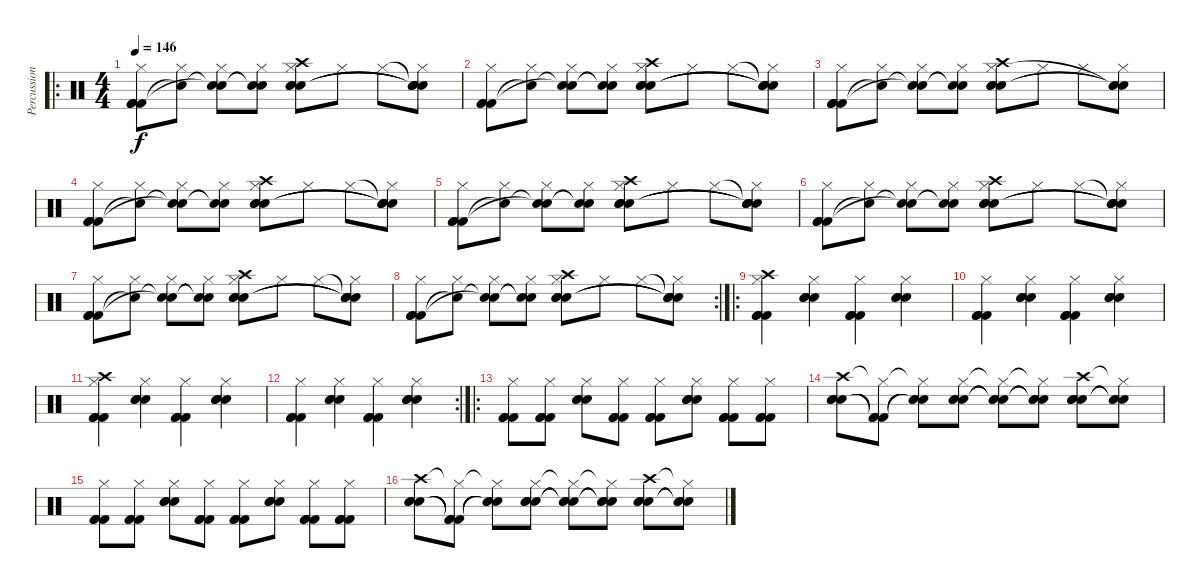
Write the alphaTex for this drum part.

\track ("Percussion" "Percussion") {instrument percussion}
\staff {score}
\articulation defaults
\ro
\ts (4 4)
\tempo 146
\clef neutral
\ks c
("Hi-Hat (closed)" "Kick (hit) 2" "Kick (hit) 2" "Kick (hit) 2").8{dy f} ("Hi-Hat (closed)" "Snare (hit)"{t}).8 ("Hi-Hat (closed)" "Snare (hit)"{t} "Snare (hit)"{t}).8 ("Hi-Hat (closed)" "Snare (hit)"{t} "Snare (hit)"{t}).8 ("Crash high (hit)" "Hi-Hat (closed)" "Snare (hit) 2" "Snare (hit) 2" "Snare (hit) 2").8 "Hi-Hat (closed)".8 "Hi-Hat (closed)".8 ("Snare (hit)"{t} "Hi-Hat (closed)" "Snare (hit)"{t} "Snare (hit)"{t} "Snare (hit)"{t}).8 |
("Hi-Hat (closed)" "Kick (hit) 2" "Kick (hit) 2" "Kick (hit) 2").8 ("Hi-Hat (closed)" "Snare (hit)"{t}).8 ("Hi-Hat (closed)" "Snare (hit)"{t} "Snare (hit)"{t}).8 ("Hi-Hat (closed)" "Snare (hit)"{t} "Snare (hit)"{t}).8 ("Crash high (hit)" "Hi-Hat (closed)" "Snare (hit) 2" "Snare (hit) 2" "Snare (hit) 2").8 "Hi-Hat (closed)".8 "Hi-Hat (closed)".8 ("Snare (hit)"{t} "Hi-Hat (closed)" "Snare (hit)"{t} "Snare (hit)"{t} "Snare (hit)"{t}).8 |
("Hi-Hat (closed)" "Kick (hit) 2" "Kick (hit) 2" "Kick (hit) 2").8 ("Hi-Hat (closed)" "Snare (hit)"{t}).8 ("Hi-Hat (closed)" "Snare (hit)"{t} "Snare (hit)"{t}).8 ("Hi-Hat (closed)" "Snare (hit)"{t} "Snare (hit)"{t}).8 ("Crash high (hit)" "Hi-Hat (closed)" "Snare (hit) 2" "Snare (hit) 2" "Snare (hit) 2").8 "Hi-Hat (closed)".8 "Hi-Hat (closed)".8 ("Hi-Hat (closed)" "Snare (hit)"{t} "Snare (hit)"{t} "Snare (hit)"{t}).8 |
("Hi-Hat (closed)" "Kick (hit) 2" "Kick (hit) 2" "Kick (hit) 2").8 ("Hi-Hat (closed)" "Snare (hit)"{t}).8 ("Hi-Hat (closed)" "Snare (hit)"{t} "Snare (hit)"{t}).8 ("Hi-Hat (closed)" "Snare (hit)"{t} "Snare (hit)"{t}).8 ("Crash high (hit)" "Hi-Hat (closed)" "Snare (hit) 2" "Snare (hit) 2" "Snare (hit) 2").8 "Hi-Hat (closed)".8 "Hi-Hat (closed)".8 ("Snare (hit)"{t} "Hi-Hat (closed)" "Snare (hit)"{t} "Snare (hit)"{t} "Snare (hit)"{t}).8 |
("Hi-Hat (closed)" "Kick (hit) 2" "Kick (hit) 2" "Kick (hit) 2").8 ("Hi-Hat (closed)" "Snare (hit)"{t}).8 ("Hi-Hat (closed)" "Snare (hit)"{t} "Snare (hit)"{t}).8 ("Hi-Hat (closed)" "Snare (hit)"{t} "Snare (hit)"{t}).8 ("Crash high (hit)" "Hi-Hat (closed)" "Snare (hit) 2" "Snare (hit) 2" "Snare (hit) 2").8 "Hi-Hat (closed)".8 "Hi-Hat (closed)".8 ("Snare (hit)"{t} "Hi-Hat (closed)" "Snare (hit)"{t} "Snare (hit)"{t} "Snare (hit)"{t}).8 |
("Hi-Hat (closed)" "Kick (hit) 2" "Kick (hit) 2" "Kick (hit) 2").8 ("Hi-Hat (closed)" "Snare (hit)"{t}).8 ("Hi-Hat (closed)" "Snare (hit)"{t} "Snare (hit)"{t}).8 ("Hi-Hat (closed)" "Snare (hit)"{t} "Snare (hit)"{t}).8 ("Crash high (hit)" "Hi-Hat (closed)" "Snare (hit) 2" "Snare (hit) 2" "Snare (hit) 2").8 "Hi-Hat (closed)".8 "Hi-Hat (closed)".8 ("Snare (hit)"{t} "Hi-Hat (closed)" "Snare (hit)"{t} "Snare (hit)"{t} "Snare (hit)"{t}).8 |
("Hi-Hat (closed)" "Kick (hit) 2" "Kick (hit) 2" "Kick (hit) 2").8 ("Hi-Hat (closed)" "Snare (hit)"{t}).8 ("Hi-Hat (closed)" "Snare (hit)"{t} "Snare (hit)"{t}).8 ("Hi-Hat (closed)" "Snare (hit)"{t} "Snare (hit)"{t}).8 ("Crash high (hit)" "Hi-Hat (closed)" "Snare (hit) 2" "Snare (hit) 2" "Snare (hit) 2").8 "Hi-Hat (closed)".8 "Hi-Hat (closed)".8 ("Snare (hit)"{t} "Hi-Hat (closed)" "Snare (hit)"{t} "Snare (hit)"{t} "Snare (hit)"{t}).8 |
\rc 2
("Hi-Hat (closed)" "Kick (hit) 2" "Kick (hit) 2" "Kick (hit) 2").8 ("Hi-Hat (closed)" "Snare (hit)"{t}).8 ("Hi-Hat (closed)" "Snare (hit)"{t} "Snare (hit)"{t}).8 ("Hi-Hat (closed)" "Snare (hit)"{t} "Snare (hit)"{t}).8 ("Crash high (hit)" "Hi-Hat (closed)" "Snare (hit) 2" "Snare (hit) 2" "Snare (hit) 2").8 "Hi-Hat (closed)".8 "Hi-Hat (closed)".8 ("Snare (hit)"{t} "Hi-Hat (closed)" "Snare (hit)"{t} "Snare (hit)"{t} "Snare (hit)"{t}).8 |
\ro
("Crash high (hit)" "Hi-Hat (closed)" "Kick (hit) 2" "Kick (hit) 2" "Kick (hit) 2").4 ("Hi-Hat (closed)" "Snare (hit) 2" "Snare (hit) 2" "Snare (hit) 2").4 ("Hi-Hat (closed)" "Kick (hit) 2" "Kick (hit) 2" "Kick (hit) 2").4 ("Hi-Hat (closed)" "Snare (hit) 2" "Snare (hit) 2" "Snare (hit) 2").4 |
("Hi-Hat (closed)" "Kick (hit) 2" "Kick (hit) 2" "Kick (hit) 2").4 ("Hi-Hat (closed)" "Snare (hit) 2" "Snare (hit) 2" "Snare (hit) 2").4 ("Hi-Hat (closed)" "Kick (hit) 2" "Kick (hit) 2" "Kick (hit) 2").4 ("Hi-Hat (closed)" "Snare (hit) 2" "Snare (hit) 2" "Snare (hit) 2").4 |
("Crash high (hit)" "Hi-Hat (closed)" "Kick (hit) 2" "Kick (hit) 2" "Kick (hit) 2").4 ("Hi-Hat (closed)" "Snare (hit) 2" "Snare (hit) 2" "Snare (hit) 2").4 ("Hi-Hat (closed)" "Kick (hit) 2" "Kick (hit) 2" "Kick (hit) 2").4 ("Hi-Hat (closed)" "Snare (hit) 2" "Snare (hit) 2" "Snare (hit) 2").4 |
\rc 2
("Hi-Hat (closed)" "Kick (hit) 2" "Kick (hit) 2" "Kick (hit) 2").4 ("Hi-Hat (closed)" "Snare (hit) 2" "Snare (hit) 2" "Snare (hit) 2").4 ("Hi-Hat (closed)" "Kick (hit) 2" "Kick (hit) 2" "Kick (hit) 2").4 ("Hi-Hat (closed)" "Snare (hit) 2" "Snare (hit) 2" "Snare (hit) 2").4 |
\ro
("Hi-Hat (closed)" "Kick (hit) 2" "Kick (hit) 2" "Kick (hit) 2").8 ("Hi-Hat (closed)" "Kick (hit) 2" "Kick (hit) 2" "Kick (hit) 2").8 ("Hi-Hat (closed)" "Snare (hit) 2" "Snare (hit) 2" "Snare (hit) 2").8 ("Hi-Hat (closed)" "Kick (hit) 2" "Kick (hit) 2" "Kick (hit) 2").8 ("Hi-Hat (closed)" "Kick (hit) 2" "Kick (hit) 2" "Kick (hit) 2").8 ("Hi-Hat (closed)" "Snare (hit) 2" "Snare (hit) 2" "Snare (hit) 2").8 ("Hi-Hat (closed)" "Kick (hit) 2" "Kick (hit) 2" "Kick (hit) 2").8 ("Hi-Hat (closed)" "Kick (hit) 2" "Kick (hit) 2" "Kick (hit) 2").8 |
("Crash high (hit)" "Snare (hit) 2" "Snare (hit) 2" "Snare (hit) 2").8 ("Hi-Hat (closed)"{t} "Kick (hit) 2"{t} "Kick (hit) 2"{t} "Kick (hit) 2"{t}).8 ("Hi-Hat (closed)"{t} "Snare (hit) 2"{t} "Snare (hit) 2"{t} "Snare (hit) 2"{t}).8 ("Hi-Hat (closed)" "Snare (hit) 2" "Snare (hit) 2" "Snare (hit) 2").8 ("Hi-Hat (closed)"{t} "Snare (hit) 2"{t} "Snare (hit) 2"{t} "Snare (hit) 2"{t}).8 ("Hi-Hat (closed)"{t} "Snare (hit) 2"{t} "Snare (hit) 2"{t} "Snare (hit) 2"{t}).8 ("Crash high (hit)" "Snare (hit) 2" "Snare (hit) 2" "Snare (hit) 2").8 ("Hi-Hat (closed)"{t} "Snare (hit) 2"{t} "Snare (hit) 2"{t} "Snare (hit) 2"{t}).8 |
("Hi-Hat (closed)" "Kick (hit) 2" "Kick (hit) 2" "Kick (hit) 2").8 ("Hi-Hat (closed)" "Kick (hit) 2" "Kick (hit) 2" "Kick (hit) 2").8 ("Hi-Hat (closed)" "Snare (hit) 2" "Snare (hit) 2" "Snare (hit) 2").8 ("Hi-Hat (closed)" "Kick (hit) 2" "Kick (hit) 2" "Kick (hit) 2").8 ("Hi-Hat (closed)" "Kick (hit) 2" "Kick (hit) 2" "Kick (hit) 2").8 ("Hi-Hat (closed)" "Snare (hit) 2" "Snare (hit) 2" "Snare (hit) 2").8 ("Hi-Hat (closed)" "Kick (hit) 2" "Kick (hit) 2" "Kick (hit) 2").8 ("Hi-Hat (closed)" "Kick (hit) 2" "Kick (hit) 2" "Kick (hit) 2").8 |
("Crash high (hit)" "Snare (hit) 2" "Snare (hit) 2" "Snare (hit) 2").8 ("Hi-Hat (closed)"{t} "Kick (hit) 2"{t} "Kick (hit) 2"{t} "Kick (hit) 2"{t}).8 ("Hi-Hat (closed)"{t} "Snare (hit) 2"{t} "Snare (hit) 2"{t} "Snare (hit) 2"{t}).8 ("Hi-Hat (closed)" "Snare (hit) 2" "Snare (hit) 2" "Snare (hit) 2").8 ("Hi-Hat (closed)"{t} "Snare (hit) 2"{t} "Snare (hit) 2"{t} "Snare (hit) 2"{t}).8 ("Hi-Hat (closed)"{t} "Snare (hit) 2"{t} "Snare (hit) 2"{t} "Snare (hit) 2"{t}).8 ("Crash high (hit)" "Snare (hit) 2" "Snare (hit) 2" "Snare (hit) 2").8 ("Hi-Hat (closed)"{t} "Snare (hit) 2"{t} "Snare (hit) 2"{t} "Snare (hit) 2"{t}).8
